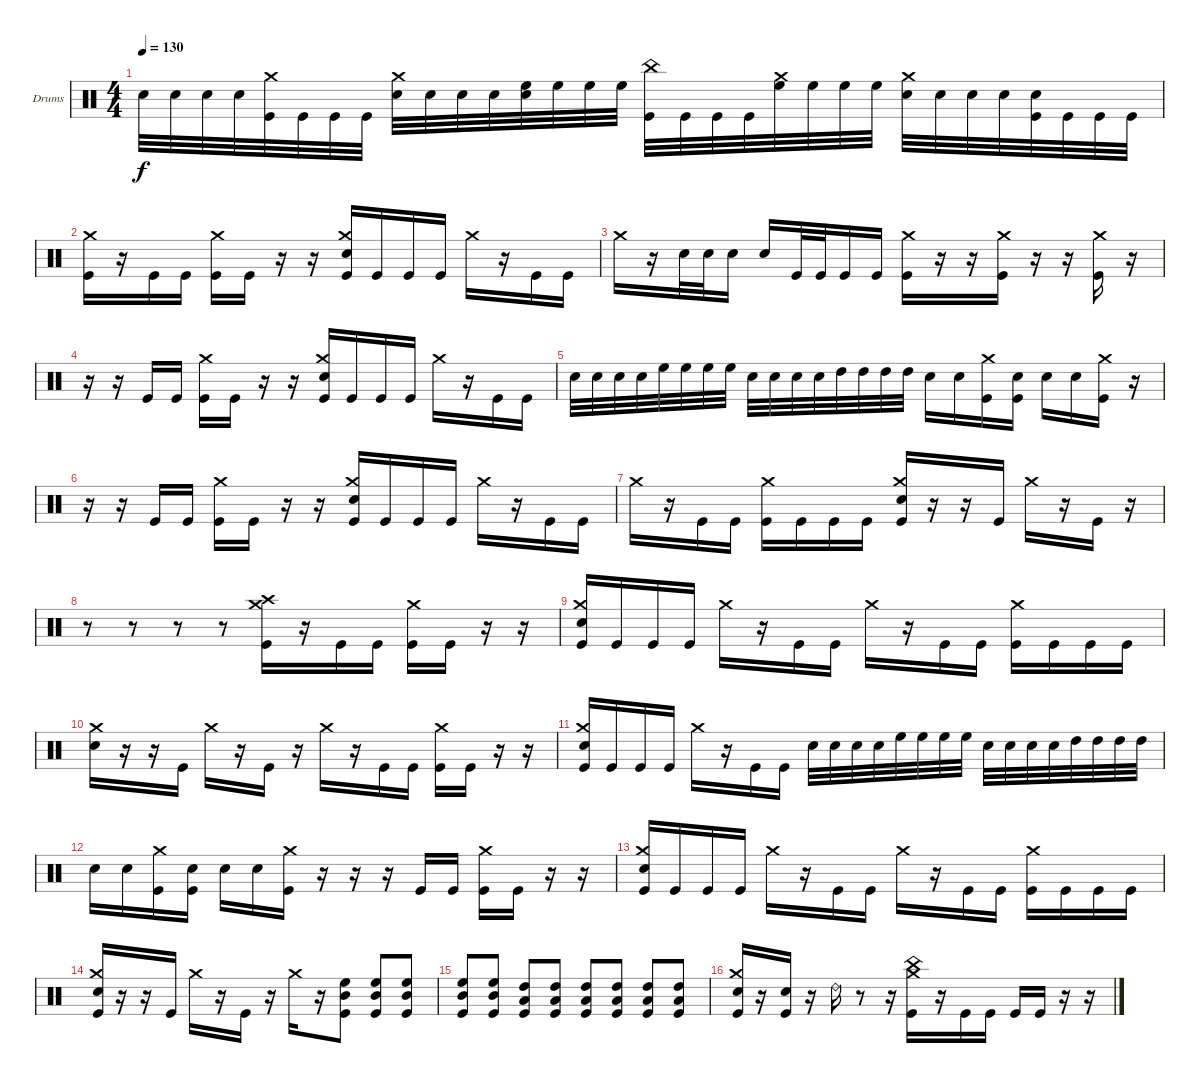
\defaultSystemsLayout 4
\bracketExtendMode groupsimilarinstruments
\firstSystemTrackNameOrientation horizontal
\otherSystemsTrackNameOrientation horizontal
\track ("Drumkit" "Drums") {instrument percussion}
\staff {score}
\articulation defaults
\ts (4 4)
\tempo 130
\clef neutral
\scale
0.472222
\ks c "Snare (hit) 2".32{dy f} "Snare (hit) 2".32 "Snare (hit) 2".32 "Snare (hit) 2".32
("Crash medium (hit)" "Kick (hit)").32 "Kick (hit)".32 "Kick (hit)".32 "Kick (hit)".32 ("Snare (hit) 2" "Crash medium (hit)").32 "Snare (hit) 2".32 "Snare (hit) 2".32 "Snare (hit) 2".32 ("Snare (hit) 2" "High Floor Tom (hit)").32 "High Floor Tom (hit)".32 "High Floor Tom (hit)".32 "High Floor Tom (hit)".32 ("China (hit)" "Kick (hit)").32 "Kick (hit)".32 "Kick (hit)".32 "Kick (hit)".32 ("Crash medium (hit)" "High Floor Tom (hit)").32 "High Floor Tom (hit)".32 "High Floor Tom (hit)".32 "High Floor Tom (hit)".32 ("Crash medium (hit)" "Snare (hit) 2").32 "Snare (hit) 2".32 "Snare (hit) 2".32 "Snare (hit) 2".32 ("Snare (hit) 2" "Kick (hit)").32 "Kick (hit)".32 "Kick (hit)".32 "Kick (hit)".32 |
\scale
0.263889 ("Kick (hit)" "Crash medium (hit)").16 r.16 "Kick (hit)".16 "Kick (hit)".16 ("Kick (hit)" "Crash medium (hit)").16 "Kick (hit)".16 r.16 r.16 ("Crash medium (hit)" "Kick (hit)" "Snare (hit) 2").16 "Kick (hit)".16 "Kick (hit)".16 "Kick (hit)".16 "Crash medium (hit)".16 r.16 "Kick (hit)".16 "Kick (hit)".16 |
\scale
0.263889 "Crash medium (hit)".16 r.16 "Snare (hit) 2".32 "Snare (hit) 2".32 "Snare (hit) 2".16 "Snare (hit) 2".16 "Kick (hit)".32 "Kick (hit)".32 "Kick (hit)".16 "Kick (hit)".16 ("Kick (hit)" "Crash medium (hit)").16 r.16 r.16 ("Crash medium (hit)" "Kick (hit)").16 r.16 r.16 ("Kick (hit)" "Crash medium (hit)").16 r.16 |
\scale
0.333333 r.16 r.16 "Kick (hit)".16 "Kick (hit)".16 ("Kick (hit)" "Crash medium (hit)").16 "Kick (hit)".16 r.16 r.16 ("Crash medium (hit)" "Snare (hit) 2" "Kick (hit)").16 "Kick (hit)".16 "Kick (hit)".16 "Kick (hit)".16 "Crash medium (hit)".16 r.16 "Kick (hit)".16 "Kick (hit)".16 |
\scale
0.333333 "Snare (hit) 2".32 "Snare (hit) 2".32 "Snare (hit) 2".32 "Snare (hit) 2".32 "High Floor Tom (hit)".32 "High Floor Tom (hit)".32 "High Floor Tom (hit)".32 "High Floor Tom (hit)".32 "Snare (hit) 2".32 "Snare (hit) 2".32 "Snare (hit) 2".32 "Snare (hit) 2".32 "High Tom (hit)".32 "High Tom (hit)".32 "High Tom (hit)".32 "High Tom (hit)".32 "Snare (hit) 2".16 "Snare (hit) 2".16 ("Crash medium (hit)" "Kick (hit)").16 ("Kick (hit)" "Snare (hit) 2").16 "Snare (hit) 2".16 "Snare (hit) 2".16 ("Crash medium (hit)" "Kick (hit)").16 r.16 |
\scale
0.333333 r.16 r.16 "Kick (hit)".16 "Kick (hit)".16 ("Kick (hit)" "Crash medium (hit)").16 "Kick (hit)".16 r.16 r.16 ("Crash medium (hit)" "Snare (hit) 2" "Kick (hit)").16 "Kick (hit)".16 "Kick (hit)".16 "Kick (hit)".16 "Crash medium (hit)".16 r.16 "Kick (hit)".16 "Kick (hit)".16 |
\scale
0.333333 "Crash medium (hit)".16 r.16 "Kick (hit)".16 "Kick (hit)".16 ("Kick (hit)" "Crash medium (hit)").16 "Kick (hit)".16 "Kick (hit)".16 "Kick (hit)".16 ("Crash medium (hit)" "Snare (hit) 2" "Kick (hit)").16 r.16 r.16 "Kick (hit)".16 "Crash medium (hit)".16 r.16 "Kick (hit)".16 r.16 |
\scale
0.333333 r.8 r.8 r.8 r.8 ("Kick (hit)" "Crash medium (hit)" "Crash high (hit)").16 r.16 "Kick (hit)".16 "Kick (hit)".16 ("Kick (hit)" "Crash medium (hit)").16 "Kick (hit)".16 r.16 r.16 |
\scale
0.333333 ("Kick (hit)" "Crash medium (hit)" "Snare (hit) 2").16 "Kick (hit)".16 "Kick (hit)".16 "Kick (hit)".16 "Crash medium (hit)".16 r.16 "Kick (hit)".16 "Kick (hit)".16 "Crash medium (hit)".16 r.16 "Kick (hit)".16 "Kick (hit)".16 ("Kick (hit)" "Crash medium (hit)").16 "Kick (hit)".16 "Kick (hit)".16 "Kick (hit)".16 |
\scale
0.333333 ("Crash medium (hit)" "Snare (hit) 2").16 r.16 r.16 "Kick (hit)".16 "Crash medium (hit)".16 r.16 "Kick (hit)".16 r.16 "Crash medium (hit)".16 r.16 "Kick (hit)".16 "Kick (hit)".16 ("Kick (hit)" "Crash medium (hit)").16 "Kick (hit)".16 r.16 r.16 |
\scale
0.333333 ("Kick (hit)" "Snare (hit) 2" "Crash medium (hit)").16 "Kick (hit)".16 "Kick (hit)".16 "Kick (hit)".16 "Crash medium (hit)".16 r.16 "Kick (hit)".16 "Kick (hit)".16 "Snare (hit) 2".32 "Snare (hit) 2".32 "Snare (hit) 2".32 "Snare (hit) 2".32 "High Floor Tom (hit)".32 "High Floor Tom (hit)".32 "High Floor Tom (hit)".32 "High Floor Tom (hit)".32 "Snare (hit) 2".32 "Snare (hit) 2".32 "Snare (hit) 2".32 "Snare (hit) 2".32 "High Tom (hit)".32 "High Tom (hit)".32 "High Tom (hit)".32 "High Tom (hit)".32 |
\scale
0.333333 "Snare (hit) 2".16 "Snare (hit) 2".16 ("Crash medium (hit)" "Kick (hit)").16 ("Kick (hit)" "Snare (hit) 2").16 "Snare (hit) 2".16 "Snare (hit) 2".16 ("Crash medium (hit)" "Kick (hit)").16 r.16 r.16 r.16 "Kick (hit)".16 "Kick (hit)".16 ("Kick (hit)" "Crash medium (hit)").16 "Kick (hit)".16 r.16 r.16 |
\scale
0.333333 ("Kick (hit)" "Crash medium (hit)" "Snare (hit) 2").16 "Kick (hit)".16 "Kick (hit)".16 "Kick (hit)".16 "Crash medium (hit)".16 r.16 "Kick (hit)".16 "Kick (hit)".16 "Crash medium (hit)".16 r.16 "Kick (hit)".16 "Kick (hit)".16 ("Kick (hit)" "Crash medium (hit)").16 "Kick (hit)".16 "Kick (hit)".16 "Kick (hit)".16 |
\scale
0.333333 ("Crash medium (hit)" "Snare (hit) 2" "Kick (hit)").16 r.16 r.16 "Kick (hit)".16 "Crash medium (hit)".16 r.16 "Kick (hit)".16 r.16 "Crash medium (hit)".16 r.16 ("High Floor Tom (hit)" "Mid Tom (hit)" "Kick (hit)").8 ("High Floor Tom (hit)" "Mid Tom (hit)" "Kick (hit)").8 ("High Floor Tom (hit)" "Mid Tom (hit)" "Kick (hit)").8 |
\scale
0.333333 ("Kick (hit)" "Mid Tom (hit)" "High Floor Tom (hit)").8 ("Kick (hit)" "Mid Tom (hit)" "High Floor Tom (hit)").8 ("High Tom (hit)" "Low Tom (hit)" "Kick (hit)").8 ("High Tom (hit)" "Low Tom (hit)" "Kick (hit)").8 ("High Tom (hit)" "Low Tom (hit)" "Kick (hit)").8 ("High Tom (hit)" "Low Tom (hit)" "Kick (hit)").8 ("High Tom (hit)" "Low Tom (hit)" "Kick (hit)").8 ("High Tom (hit)" "Low Tom (hit)" "Kick (hit)").8 |
("Kick (hit)" "Crash medium (hit)" "Snare (hit) 2").16 r.16 ("Snare (hit) 2" "Kick (hit)").16 r.16 "Ride (bell) 2".16 r.8 r.16 ("Crash medium (hit)" "China (hit)" "Kick (hit)").16 r.16 "Kick (hit)".16 "Kick (hit)".16 "Kick (hit)".16 "Kick (hit)".16 r.16 r.16
